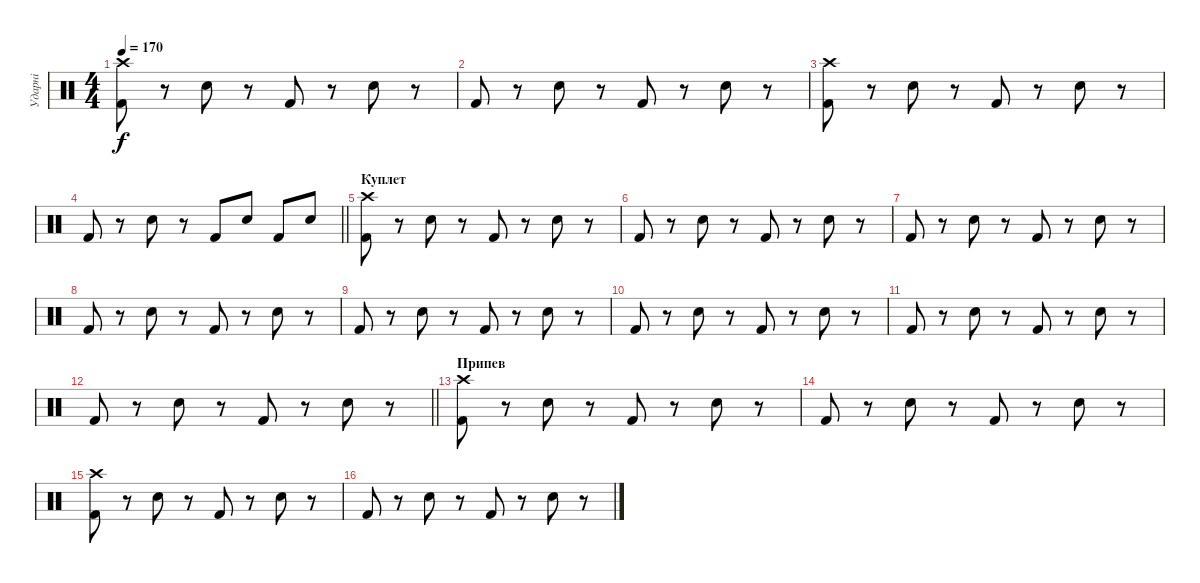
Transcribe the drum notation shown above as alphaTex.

\track ("Ударні" "Ударні") {instrument percussion}
\staff {score}
\articulation defaults
\ts (4 4)
\tempo 170
\clef neutral
\ks c
("Kick (hit) 2" "Crash high (hit)").8{dy f} r.8 "Electric Snare (hit)".8 r.8 "Kick (hit) 2".8 r.8 "Electric Snare (hit)".8 r.8 |
"Kick (hit) 2".8 r.8 "Electric Snare (hit)".8 r.8 "Kick (hit) 2".8 r.8 "Electric Snare (hit)".8 r.8 |
("Kick (hit) 2" "Crash high (hit)").8 r.8 "Electric Snare (hit)".8 r.8 "Kick (hit) 2".8 r.8 "Electric Snare (hit)".8 r.8 |
\barLineRight lightlight "Kick (hit) 2".8
r.8 "Electric Snare (hit)".8 r.8 "Kick (hit) 2".8 "Electric Snare (hit)".8 "Kick (hit) 2".8 "Electric Snare (hit)".8 |
\section ("" "Куплет")
("Kick (hit) 2" "Crash high (hit)").8 r.8 "Electric Snare (hit)".8 r.8 "Kick (hit) 2".8 r.8 "Electric Snare (hit)".8 r.8 |
"Kick (hit) 2".8 r.8 "Electric Snare (hit)".8 r.8 "Kick (hit) 2".8 r.8 "Electric Snare (hit)".8 r.8 |
"Kick (hit) 2".8 r.8 "Electric Snare (hit)".8 r.8 "Kick (hit) 2".8 r.8 "Electric Snare (hit)".8 r.8 |
"Kick (hit) 2".8 r.8 "Electric Snare (hit)".8 r.8 "Kick (hit) 2".8 r.8 "Electric Snare (hit)".8 r.8 |
"Kick (hit) 2".8 r.8 "Electric Snare (hit)".8 r.8 "Kick (hit) 2".8 r.8 "Electric Snare (hit)".8 r.8 |
"Kick (hit) 2".8 r.8 "Electric Snare (hit)".8 r.8 "Kick (hit) 2".8 r.8 "Electric Snare (hit)".8 r.8 |
"Kick (hit) 2".8 r.8 "Electric Snare (hit)".8 r.8 "Kick (hit) 2".8 r.8 "Electric Snare (hit)".8 r.8 |
\barLineRight lightlight "Kick (hit) 2".8
r.8 "Electric Snare (hit)".8 r.8 "Kick (hit) 2".8 r.8 "Electric Snare (hit)".8 r.8 |
\section ("" "Припев")
("Kick (hit) 2" "Crash high (hit)").8 r.8 "Electric Snare (hit)".8 r.8 "Kick (hit) 2".8 r.8 "Electric Snare (hit)".8 r.8 |
"Kick (hit) 2".8 r.8 "Electric Snare (hit)".8 r.8 "Kick (hit) 2".8 r.8 "Electric Snare (hit)".8 r.8 |
("Kick (hit) 2" "Crash high (hit)").8 r.8 "Electric Snare (hit)".8 r.8 "Kick (hit) 2".8 r.8 "Electric Snare (hit)".8 r.8 |
"Kick (hit) 2".8 r.8 "Electric Snare (hit)".8 r.8 "Kick (hit) 2".8 r.8 "Electric Snare (hit)".8 r.8
